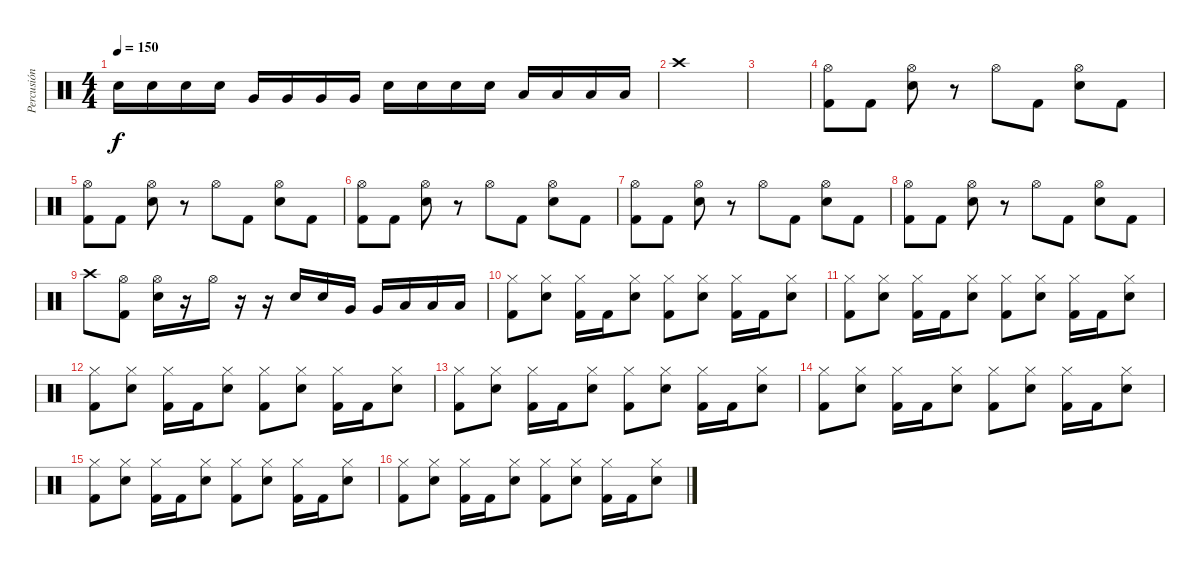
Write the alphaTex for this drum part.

\track ("Percusión" "Percusión") {instrument percussion}
\staff {score}
\articulation defaults
\ts (4 4)
\tempo 150
\clef neutral
\ks c "Electric Snare (hit)".16{dy f} "Electric Snare (hit)".16 "Electric Snare (hit)".16 "Electric Snare (hit)".16 "Very Low Tom (hit)".16 "Very Low Tom (hit)".16 "Very Low Tom (hit)".16 "Very Low Tom (hit)".16 "Electric Snare (hit)".16 "Electric Snare (hit)".16 "Electric Snare (hit)".16 "Electric Snare (hit)".16 "Low Tom (hit)".16 "Low Tom (hit)".16 "Low Tom (hit)".16 "Low Tom (hit)".16
|
"Crash high (hit)".1 |
|
("Hi-Hat (open)" "Kick (hit) 2").8 "Kick (hit) 2".8 ("Hi-Hat (open)" "Electric Snare (hit)").8 r.8 "Hi-Hat (open)".8 "Kick (hit) 2".8 ("Hi-Hat (open)" "Electric Snare (hit)").8 "Kick (hit) 2".8 |
("Hi-Hat (open)" "Kick (hit) 2").8 "Kick (hit) 2".8 ("Hi-Hat (open)" "Electric Snare (hit)").8 r.8 "Hi-Hat (open)".8 "Kick (hit) 2".8 ("Hi-Hat (open)" "Electric Snare (hit)").8 "Kick (hit) 2".8 |
("Hi-Hat (open)" "Kick (hit) 2").8 "Kick (hit) 2".8 ("Hi-Hat (open)" "Electric Snare (hit)").8 r.8 "Hi-Hat (open)".8 "Kick (hit) 2".8 ("Hi-Hat (open)" "Electric Snare (hit)").8 "Kick (hit) 2".8 |
("Hi-Hat (open)" "Kick (hit) 2").8 "Kick (hit) 2".8 ("Hi-Hat (open)" "Electric Snare (hit)").8 r.8 "Hi-Hat (open)".8 "Kick (hit) 2".8 ("Hi-Hat (open)" "Electric Snare (hit)").8 "Kick (hit) 2".8 |
("Hi-Hat (open)" "Kick (hit) 2").8 "Kick (hit) 2".8 ("Hi-Hat (open)" "Electric Snare (hit)").8 r.8 "Hi-Hat (open)".8 "Kick (hit) 2".8 ("Hi-Hat (open)" "Electric Snare (hit)").8 "Kick (hit) 2".8 |
"Crash high (hit)".8 ("Hi-Hat (open)" "Kick (hit) 2").8 ("Hi-Hat (open)" "Electric Snare (hit)").16 r.16 "Hi-Hat (open)".16 r.16 r.16 "Electric Snare (hit)".16 "Electric Snare (hit)".16 "Very Low Tom (hit)".16 "Very Low Tom (hit)".16 "Low Tom (hit)".16 "Low Tom (hit)".16 "Low Tom (hit)".16 |
("Hi-Hat (closed)" "Kick (hit) 2").8 ("Hi-Hat (closed)" "Electric Snare (hit)").8 ("Hi-Hat (closed)" "Kick (hit) 2").16 "Kick (hit) 2".16 ("Hi-Hat (closed)" "Electric Snare (hit)").8 ("Hi-Hat (closed)" "Kick (hit) 2").8 ("Hi-Hat (closed)" "Electric Snare (hit)").8 ("Hi-Hat (closed)" "Kick (hit) 2").16 "Kick (hit) 2".16 ("Hi-Hat (closed)" "Electric Snare (hit)").8 |
("Hi-Hat (closed)" "Kick (hit) 2").8 ("Hi-Hat (closed)" "Electric Snare (hit)").8 ("Hi-Hat (closed)" "Kick (hit) 2").16 "Kick (hit) 2".16 ("Hi-Hat (closed)" "Electric Snare (hit)").8 ("Hi-Hat (closed)" "Kick (hit) 2").8 ("Hi-Hat (closed)" "Electric Snare (hit)").8 ("Hi-Hat (closed)" "Kick (hit) 2").16 "Kick (hit) 2".16 ("Hi-Hat (closed)" "Electric Snare (hit)").8 |
("Hi-Hat (closed)" "Kick (hit) 2").8 ("Hi-Hat (closed)" "Electric Snare (hit)").8 ("Hi-Hat (closed)" "Kick (hit) 2").16 "Kick (hit) 2".16 ("Hi-Hat (closed)" "Electric Snare (hit)").8 ("Hi-Hat (closed)" "Kick (hit) 2").8 ("Hi-Hat (closed)" "Electric Snare (hit)").8 ("Hi-Hat (closed)" "Kick (hit) 2").16 "Kick (hit) 2".16 ("Hi-Hat (closed)" "Electric Snare (hit)").8 |
("Hi-Hat (closed)" "Kick (hit) 2").8 ("Hi-Hat (closed)" "Electric Snare (hit)").8 ("Hi-Hat (closed)" "Kick (hit) 2").16 "Kick (hit) 2".16 ("Hi-Hat (closed)" "Electric Snare (hit)").8 ("Hi-Hat (closed)" "Kick (hit) 2").8 ("Hi-Hat (closed)" "Electric Snare (hit)").8 ("Hi-Hat (closed)" "Kick (hit) 2").16 "Kick (hit) 2".16 ("Hi-Hat (closed)" "Electric Snare (hit)").8 |
("Hi-Hat (closed)" "Kick (hit) 2").8 ("Hi-Hat (closed)" "Electric Snare (hit)").8 ("Hi-Hat (closed)" "Kick (hit) 2").16 "Kick (hit) 2".16 ("Hi-Hat (closed)" "Electric Snare (hit)").8 ("Hi-Hat (closed)" "Kick (hit) 2").8 ("Hi-Hat (closed)" "Electric Snare (hit)").8 ("Hi-Hat (closed)" "Kick (hit) 2").16 "Kick (hit) 2".16 ("Hi-Hat (closed)" "Electric Snare (hit)").8 |
("Hi-Hat (closed)" "Kick (hit) 2").8 ("Hi-Hat (closed)" "Electric Snare (hit)").8 ("Hi-Hat (closed)" "Kick (hit) 2").16 "Kick (hit) 2".16 ("Hi-Hat (closed)" "Electric Snare (hit)").8 ("Hi-Hat (closed)" "Kick (hit) 2").8 ("Hi-Hat (closed)" "Electric Snare (hit)").8 ("Hi-Hat (closed)" "Kick (hit) 2").16 "Kick (hit) 2".16 ("Hi-Hat (closed)" "Electric Snare (hit)").8 |
("Hi-Hat (closed)" "Kick (hit) 2").8 ("Hi-Hat (closed)" "Electric Snare (hit)").8 ("Hi-Hat (closed)" "Kick (hit) 2").16 "Kick (hit) 2".16 ("Hi-Hat (closed)" "Electric Snare (hit)").8 ("Hi-Hat (closed)" "Kick (hit) 2").8 ("Hi-Hat (closed)" "Electric Snare (hit)").8 ("Hi-Hat (closed)" "Kick (hit) 2").16 "Kick (hit) 2".16 ("Hi-Hat (closed)" "Electric Snare (hit)").8
